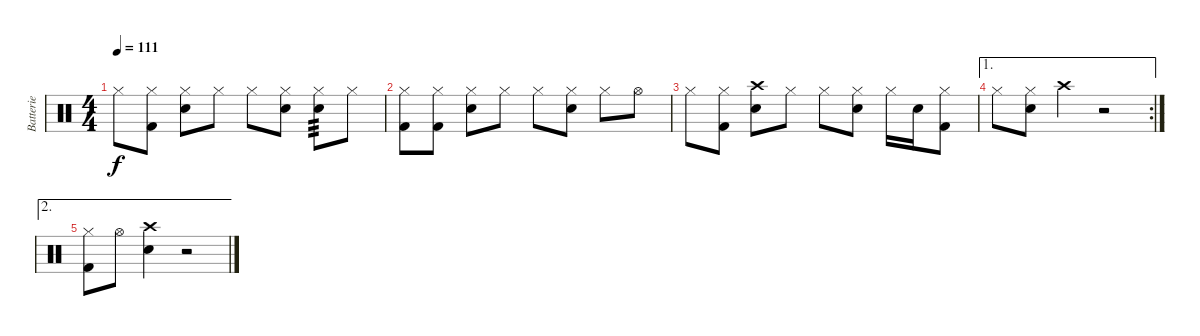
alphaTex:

\track ("Batterie" "Batterie") {instrument percussion}
\staff {score}
\articulation defaults
\ts (4 4)
\tempo 111
\clef neutral
\ks c "Hi-Hat (closed)".8{dy f}
("Hi-Hat (closed)" "Kick (hit) 2").8 ("Hi-Hat (closed)" "Snare (hit) 2").8 "Hi-Hat (closed)".8 "Hi-Hat (closed)".8 ("Hi-Hat (closed)" "Snare (hit) 2").8 ("Hi-Hat (closed)" "Snare (hit) 2").8{tp 3} "Hi-Hat (closed)".8 |
("Hi-Hat (closed)" "Kick (hit) 2").8 ("Hi-Hat (closed)" "Kick (hit) 2").8 ("Hi-Hat (closed)" "Snare (hit) 2").8 "Hi-Hat (closed)".8 "Hi-Hat (closed)".8 ("Hi-Hat (closed)" "Snare (hit) 2").8 "Hi-Hat (closed)".8 "Hi-Hat (open)".8 |
"Hi-Hat (closed)".8 ("Hi-Hat (closed)" "Kick (hit) 2").8 ("Crash high (hit)" "Snare (hit) 2").8 "Hi-Hat (closed)".8 "Hi-Hat (closed)".8 ("Hi-Hat (closed)" "Snare (hit) 2").8 "Hi-Hat (closed)".16 "Snare (hit) 2".16 ("Hi-Hat (closed)" "Kick (hit) 2").8 |
\ae 1
\rc 2 "Hi-Hat (closed)".8
("Hi-Hat (closed)" "Snare (hit) 2").8 "Crash high (hit)".4 r.2 |
\ae 2
("Hi-Hat (closed)" "Kick (hit) 2").8 "Hi-Hat (open)".8 ("Crash high (hit)" "Snare (hit) 2").4 r.2
